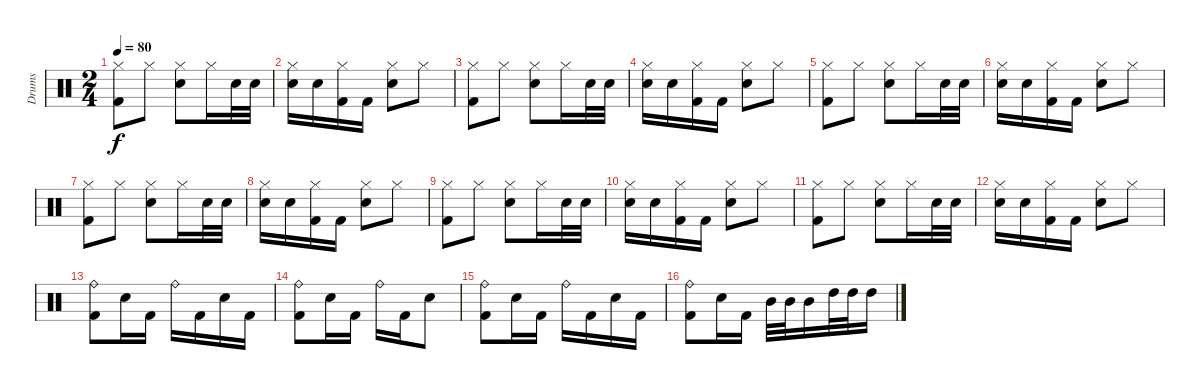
\track ("Drums" "Drums") {instrument percussion}
\staff {score}
\articulation defaults
\ts (2 4)
\tempo 80
\clef neutral
\ks aminor
("Hi-Hat (closed)" "Kick (hit) 2").8{dy f} "Hi-Hat (closed)".8 ("Electric Snare (hit)" "Hi-Hat (closed)").8 "Hi-Hat (closed)".16 "Electric Snare (hit)".32 "Electric Snare (hit)".32 |
("Electric Snare (hit)" "Hi-Hat (closed)").16 "Electric Snare (hit)".16 ("Kick (hit) 2" "Hi-Hat (closed)").16 "Kick (hit) 2".16 ("Electric Snare (hit)" "Hi-Hat (closed)").8 "Hi-Hat (closed)".8 |
("Hi-Hat (closed)" "Kick (hit) 2").8 "Hi-Hat (closed)".8 ("Electric Snare (hit)" "Hi-Hat (closed)").8 "Hi-Hat (closed)".16 "Electric Snare (hit)".32 "Electric Snare (hit)".32 |
("Electric Snare (hit)" "Hi-Hat (closed)").16 "Electric Snare (hit)".16 ("Kick (hit) 2" "Hi-Hat (closed)").16 "Kick (hit) 2".16 ("Electric Snare (hit)" "Hi-Hat (closed)").8 "Hi-Hat (closed)".8 |
("Hi-Hat (closed)" "Kick (hit) 2").8 "Hi-Hat (closed)".8 ("Electric Snare (hit)" "Hi-Hat (closed)").8 "Hi-Hat (closed)".16 "Electric Snare (hit)".32 "Electric Snare (hit)".32 |
("Electric Snare (hit)" "Hi-Hat (closed)").16 "Electric Snare (hit)".16 ("Kick (hit) 2" "Hi-Hat (closed)").16 "Kick (hit) 2".16 ("Electric Snare (hit)" "Hi-Hat (closed)").8 "Hi-Hat (closed)".8 |
("Hi-Hat (closed)" "Kick (hit) 2").8 "Hi-Hat (closed)".8 ("Electric Snare (hit)" "Hi-Hat (closed)").8 "Hi-Hat (closed)".16 "Electric Snare (hit)".32 "Electric Snare (hit)".32 |
("Electric Snare (hit)" "Hi-Hat (closed)").16 "Electric Snare (hit)".16 ("Kick (hit) 2" "Hi-Hat (closed)").16 "Kick (hit) 2".16 ("Electric Snare (hit)" "Hi-Hat (closed)").8 "Hi-Hat (closed)".8 |
("Hi-Hat (closed)" "Kick (hit) 2").8 "Hi-Hat (closed)".8 ("Electric Snare (hit)" "Hi-Hat (closed)").8 "Hi-Hat (closed)".16 "Electric Snare (hit)".32 "Electric Snare (hit)".32 |
("Electric Snare (hit)" "Hi-Hat (closed)").16 "Electric Snare (hit)".16 ("Kick (hit) 2" "Hi-Hat (closed)").16 "Kick (hit) 2".16 ("Electric Snare (hit)" "Hi-Hat (closed)").8 "Hi-Hat (closed)".8 |
("Hi-Hat (closed)" "Kick (hit) 2").8 "Hi-Hat (closed)".8 ("Electric Snare (hit)" "Hi-Hat (closed)").8 "Hi-Hat (closed)".16 "Electric Snare (hit)".32 "Electric Snare (hit)".32 |
("Electric Snare (hit)" "Hi-Hat (closed)").16 "Electric Snare (hit)".16 ("Kick (hit) 2" "Hi-Hat (closed)").16 "Kick (hit) 2".16 ("Electric Snare (hit)" "Hi-Hat (closed)").8 "Hi-Hat (closed)".8 |
("Kick (hit) 2" "Ride (bell)").8 "Electric Snare (hit)".16 "Kick (hit) 2".16 "Ride (bell)".16 "Kick (hit) 2".16 "Electric Snare (hit)".16 "Kick (hit) 2".16 |
("Kick (hit) 2" "Ride (bell)").8 "Electric Snare (hit)".16 "Kick (hit) 2".16 "Ride (bell)".16 "Kick (hit) 2".16 "Electric Snare (hit)".8 |
("Kick (hit) 2" "Ride (bell)").8 "Electric Snare (hit)".16 "Kick (hit) 2".16 "Ride (bell)".16 "Kick (hit) 2".16 "Electric Snare (hit)".16 "Kick (hit) 2".16 |
("Kick (hit) 2" "Ride (bell)").8 "Electric Snare (hit)".16 "Kick (hit) 2".16 "Mid Tom (hit)".32 "Mid Tom (hit)".32 "Mid Tom (hit)".16 "High Tom (hit)".32 "High Tom (hit)".32 "High Tom (hit)".16
